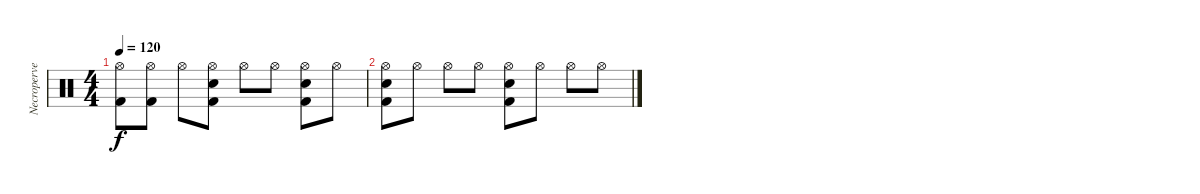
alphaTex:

\track ("Necroperversor" "Necroperve") {instrument percussion}
\staff {score}
\articulation defaults
\ts (4 4)
\tempo 120
\clef neutral
\ks c
("Hi-Hat (open)" "Kick (hit) 2").8{dy f volume 0} ("Hi-Hat (open)" "Kick (hit) 2").8 "Hi-Hat (open)".8 ("Hi-Hat (open)" "Electric Snare (hit)" "Kick (hit) 2").8 "Hi-Hat (open)".8 "Hi-Hat (open)".8 ("Hi-Hat (open)" "Electric Snare (hit)" "Kick (hit) 2").8 "Hi-Hat (open)".8 |
("Hi-Hat (open)" "Electric Snare (hit)" "Kick (hit) 2").8 "Hi-Hat (open)".8 "Hi-Hat (open)".8 "Hi-Hat (open)".8 ("Hi-Hat (open)" "Electric Snare (hit)" "Kick (hit) 2").8 "Hi-Hat (open)".8 "Hi-Hat (open)".8 "Hi-Hat (open)".8
